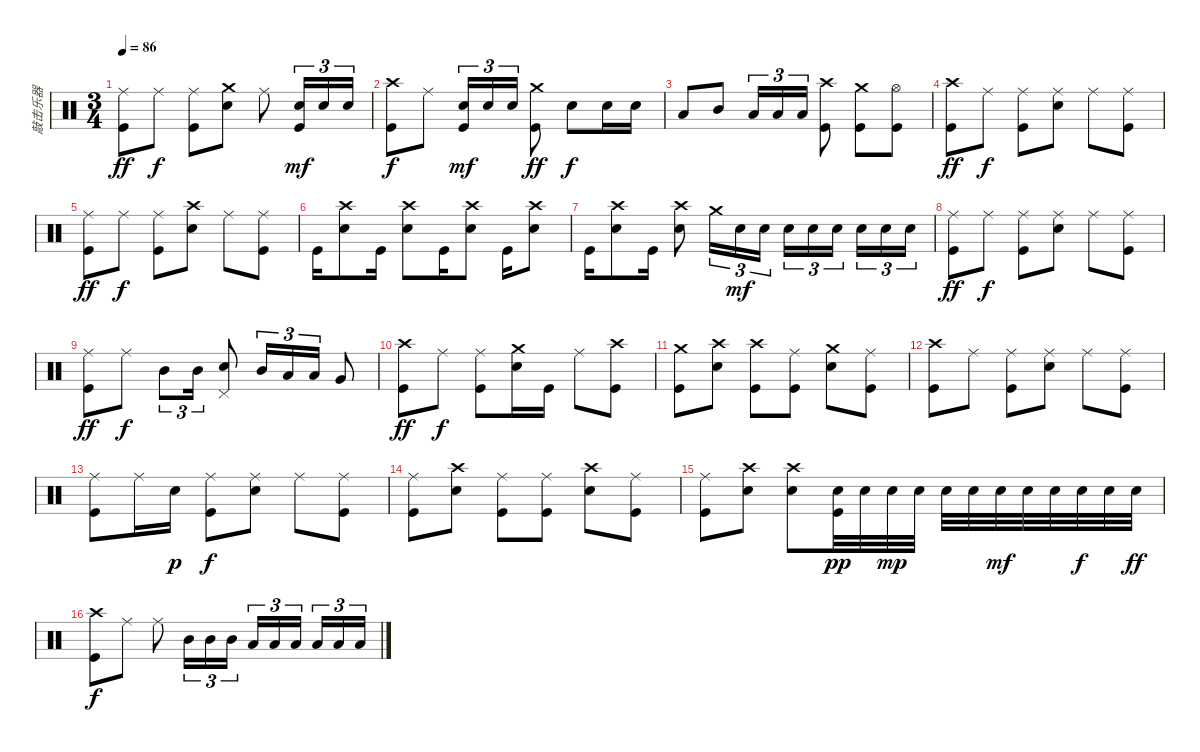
\track ("敲击乐器" "敲击乐器") {instrument percussion}
\staff {score}
\articulation defaults
\ts (3 4)
\tempo 86
\clef neutral
\ks c
("Ride (middle)" "Kick (hit)").8{dy ff} "Ride (middle)".8{dy f} ("Ride (middle)" "Kick (hit)").8 ("Crash medium (hit)" "Snare (hit) 2").8 "Ride (middle)".8 ("Snare (hit) 2" "Kick (hit)").16{tu (3 2) dy mf} "Snare (hit) 2".16{tu (3 2)} "Snare (hit) 2".16{tu (3 2)} |
("Crash high (hit)" "Kick (hit)").8{dy f} "Ride (middle)".8 ("Snare (hit) 2" "Kick (hit)").16{tu (3 2) dy mf} "Snare (hit) 2".16{tu (3 2)} "Snare (hit) 2".16{tu (3 2)} ("Crash medium (hit)" "Kick (hit)").8{dy ff} "Snare (hit) 2".8{dy f} "Snare (hit) 2".16 "Snare (hit) 2".16 |
"Low Tom (hit)".8 "Mid Tom (hit)".8 "Low Tom (hit)".16{tu (3 2)} "Low Floor Tom (hit)".16{tu (3 2)} "Low Floor Tom (hit)".16{tu (3 2)} ("Crash high (hit)" "Kick (hit)").8 ("Crash medium (hit)" "Kick (hit)").8 ("Hi-Hat (open)" "Kick (hit)").8 |
("Crash high (hit)" "Kick (hit)").8{dy ff} "Ride (middle)".8{dy f} ("Ride (middle)" "Kick (hit)").8 ("Ride (middle)" "Snare (hit) 2").8 "Ride (middle)".8 ("Ride (middle)" "Kick (hit)").8 |
("Ride (middle)" "Kick (hit)").8{dy ff} "Ride (middle)".8{dy f} ("Ride (middle)" "Kick (hit)").8 ("Crash high (hit)" "Snare (hit) 2").8 "Ride (middle)".8 ("Ride (middle)" "Kick (hit)").8 |
"Kick (hit)".16 ("Crash high (hit)" "Snare (hit) 2").8 "Kick (hit)".16 ("Crash high (hit)" "Snare (hit) 2").8 "Kick (hit)".16 ("Crash high (hit)" "Snare (hit) 2").8 "Kick (hit)".16 ("Crash high (hit)" "Snare (hit) 2").8 |
"Kick (hit)".16 ("Crash high (hit)" "Snare (hit) 2").8 "Kick (hit)".16 ("Crash high (hit)" "Snare (hit) 2").8 "Crash medium (hit)".16{tu (3 2)} "Snare (hit) 2".16{tu (3 2) dy mf} "Snare (hit) 2".16{tu (3 2)} "Snare (hit) 2".16{tu (3 2)} "Snare (hit) 2".16{tu (3 2)} "Snare (hit) 2".16{tu (3 2) beam splitsecondary} "Snare (hit) 2".16{tu (3 2)} "Snare (hit) 2".16{tu (3 2)} "Snare (hit) 2".16{tu (3 2)} |
("Ride (middle)" "Kick (hit)").8{dy ff} "Ride (middle)".8{dy f} ("Ride (middle)" "Kick (hit)").8 ("Ride (middle)" "Snare (hit) 2").8 "Ride (middle)".8 ("Ride (middle)" "Kick (hit)").8 |
("Ride (middle)" "Kick (hit)").8{dy ff} "Ride (middle)".8{dy f} "Mid Tom (hit)".8{tu (3 2)} "Mid Tom (hit)".16{tu (3 2)} ("Pedal Hi-Hat (hit)" "Snare (hit) 2").8 "Mid Tom (hit)".16{tu (3 2)} "Low Tom (hit)".16{tu (3 2)} "Low Floor Tom (hit)".16{tu (3 2)} "Very Low Tom (hit)".8 |
("Crash high (hit)" "Kick (hit)").8{dy ff} "Ride (middle)".8{dy f} ("Ride (middle)" "Kick (hit)").8 ("Crash medium (hit)" "Snare (hit) 2").16 "Kick (hit)".16 "Ride (middle)".8 ("Crash high (hit)" "Kick (hit)").8 |
("Crash medium (hit)" "Kick (hit)").8 ("Crash high (hit)" "Snare (hit) 2").8 ("Crash high (hit)" "Kick (hit)").8 ("Ride (middle)" "Kick (hit)").8 ("Crash medium (hit)" "Snare (hit) 2").8 ("Ride (middle)" "Kick (hit)").8 |
("Crash high (hit)" "Kick (hit)").8 "Ride (middle)".8 ("Ride (middle)" "Kick (hit)").8 ("Ride (middle)" "Snare (hit) 2").8 "Ride (middle)".8 ("Ride (middle)" "Kick (hit)").8 |
("Ride (middle)" "Kick (hit)").8 "Ride (middle)".16 "Snare (hit) 2".16{dy p} ("Ride (middle)" "Kick (hit)").8{dy f} ("Ride (middle)" "Snare (hit) 2").8 "Ride (middle)".8 ("Ride (middle)" "Kick (hit)").8 |
("Ride (middle)" "Kick (hit)").8 ("Crash high (hit)" "Snare (hit) 2").8 ("Ride (middle)" "Kick (hit)").8 ("Ride (middle)" "Kick (hit)").8 ("Crash high (hit)" "Snare (hit) 2").8 ("Ride (middle)" "Kick (hit)").8 |
("Ride (middle)" "Kick (hit)").8 ("Crash high (hit)" "Snare (hit) 2").8 ("Crash high (hit)" "Snare (hit) 2").8 ("Snare (hit) 2" "Kick (hit)").32{dy pp} "Snare (hit) 2".32 "Snare (hit) 2".32{dy mp} "Snare (hit) 2".32 "Snare (hit) 2".32 "Snare (hit) 2".32 "Snare (hit) 2".32{dy mf} "Snare (hit) 2".32 "Snare (hit) 2".32 "Snare (hit) 2".32{dy f} "Snare (hit) 2".32 "Snare (hit) 2".32{dy ff} |
("Crash high (hit)" "Kick (hit)").8{dy f} "Ride (middle)".8 "Ride (middle)".8 "Mid Tom (hit)".16{tu (3 2)} "Mid Tom (hit)".16{tu (3 2)} "Mid Tom (hit)".16{tu (3 2)} "Low Tom (hit)".16{tu (3 2)} "Low Tom (hit)".16{tu (3 2)} "Low Tom (hit)".16{tu (3 2) beam splitsecondary} "Low Floor Tom (hit)".16{tu (3 2)} "Low Floor Tom (hit)".16{tu (3 2)} "Low Floor Tom (hit)".16{tu (3 2)}
